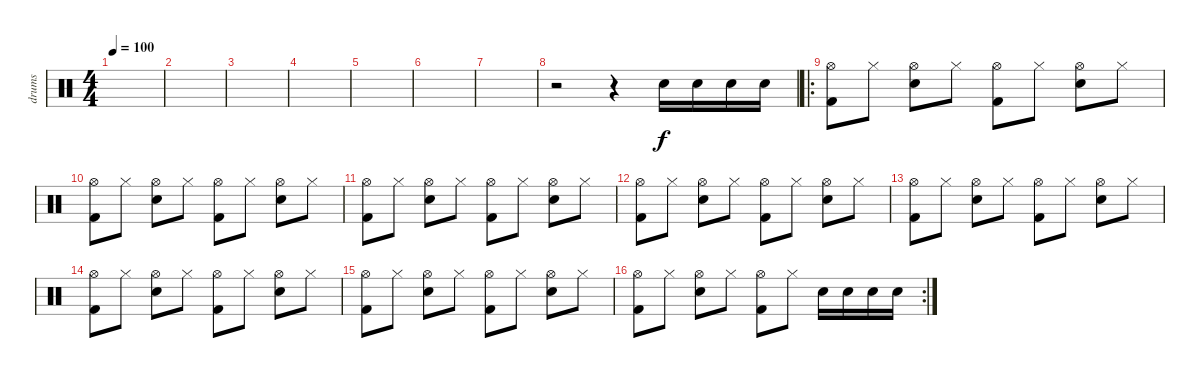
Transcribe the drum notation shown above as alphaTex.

\track ("drums" "drums") {instrument percussion}
\staff {score}
\articulation defaults
\ts (4 4)
\tempo 100
\clef neutral
\ks c
|
|
|
|
|
|
|
r.2 r.4 "Snare (hit) 2".16 "Snare (hit) 2".16 "Snare (hit) 2".16 "Snare (hit) 2".16 |
\ro
("Hi-Hat (open)" "Kick (hit) 2").8 "Hi-Hat (closed)".8 ("Hi-Hat (open)" "Snare (hit) 2").8 "Hi-Hat (closed)".8 ("Hi-Hat (open)" "Kick (hit) 2").8 "Hi-Hat (closed)".8 ("Hi-Hat (open)" "Snare (hit) 2").8 "Hi-Hat (closed)".8 |
("Hi-Hat (open)" "Kick (hit) 2").8 "Hi-Hat (closed)".8 ("Hi-Hat (open)" "Snare (hit) 2").8 "Hi-Hat (closed)".8 ("Hi-Hat (open)" "Kick (hit) 2").8 "Hi-Hat (closed)".8 ("Hi-Hat (open)" "Snare (hit) 2").8 "Hi-Hat (closed)".8 |
("Hi-Hat (open)" "Kick (hit) 2").8 "Hi-Hat (closed)".8 ("Hi-Hat (open)" "Snare (hit) 2").8 "Hi-Hat (closed)".8 ("Hi-Hat (open)" "Kick (hit) 2").8 "Hi-Hat (closed)".8 ("Hi-Hat (open)" "Snare (hit) 2").8 "Hi-Hat (closed)".8 |
("Hi-Hat (open)" "Kick (hit) 2").8 "Hi-Hat (closed)".8 ("Hi-Hat (open)" "Snare (hit) 2").8 "Hi-Hat (closed)".8 ("Hi-Hat (open)" "Kick (hit) 2").8 "Hi-Hat (closed)".8 ("Hi-Hat (open)" "Snare (hit) 2").8 "Hi-Hat (closed)".8 |
("Hi-Hat (open)" "Kick (hit) 2").8 "Hi-Hat (closed)".8 ("Hi-Hat (open)" "Snare (hit) 2").8 "Hi-Hat (closed)".8 ("Hi-Hat (open)" "Kick (hit) 2").8 "Hi-Hat (closed)".8 ("Hi-Hat (open)" "Snare (hit) 2").8 "Hi-Hat (closed)".8 |
("Hi-Hat (open)" "Kick (hit) 2").8 "Hi-Hat (closed)".8 ("Hi-Hat (open)" "Snare (hit) 2").8 "Hi-Hat (closed)".8 ("Hi-Hat (open)" "Kick (hit) 2").8 "Hi-Hat (closed)".8 ("Hi-Hat (open)" "Snare (hit) 2").8 "Hi-Hat (closed)".8 |
("Hi-Hat (open)" "Kick (hit) 2").8 "Hi-Hat (closed)".8 ("Hi-Hat (open)" "Snare (hit) 2").8 "Hi-Hat (closed)".8 ("Hi-Hat (open)" "Kick (hit) 2").8 "Hi-Hat (closed)".8 ("Hi-Hat (open)" "Snare (hit) 2").8 "Hi-Hat (closed)".8 |
\rc 2
("Hi-Hat (open)" "Kick (hit) 2").8 "Hi-Hat (closed)".8 ("Hi-Hat (open)" "Snare (hit) 2").8 "Hi-Hat (closed)".8 ("Hi-Hat (open)" "Kick (hit) 2").8 "Hi-Hat (closed)".8 "Snare (hit) 2".16 "Snare (hit) 2".16 "Snare (hit) 2".16 "Snare (hit) 2".16
